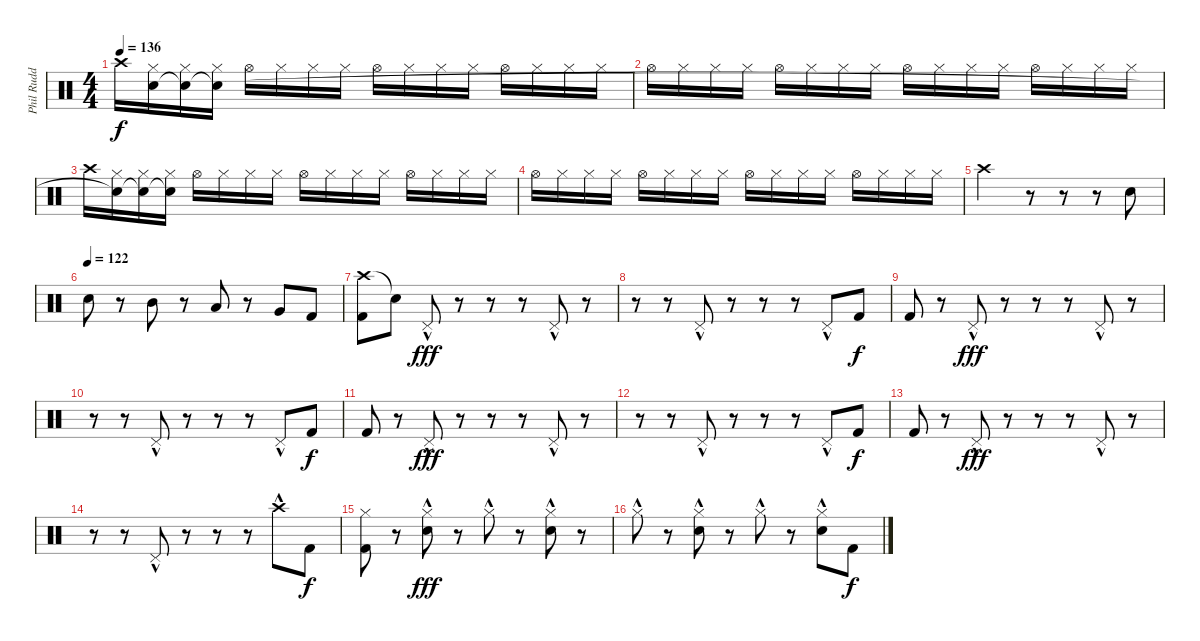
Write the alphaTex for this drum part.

\track ("Phil Rudd" "Phil Rudd") {instrument percussion}
\staff {score}
\articulation defaults
\ts (4 4)
\tempo 136
\clef neutral
\ks c "Crash high (hit)".16{dy f}
("Hi-Hat (closed)" "Snare (hit)"{t}).16 ("Hi-Hat (closed)" "Snare (hit)"{t}).16 ("Hi-Hat (closed)" "Snare (hit)"{t}).16 "Hi-Hat (open)".16 "Hi-Hat (closed)".16 "Hi-Hat (closed)".16 "Hi-Hat (closed)".16 "Hi-Hat (open)".16 "Hi-Hat (closed)".16 "Hi-Hat (closed)".16 "Hi-Hat (closed)".16 "Hi-Hat (open)".16 "Hi-Hat (closed)".16 "Hi-Hat (closed)".16 "Hi-Hat (closed)".16 |
"Hi-Hat (open)".16 "Hi-Hat (closed)".16 "Hi-Hat (closed)".16 "Hi-Hat (closed)".16 "Hi-Hat (open)".16 "Hi-Hat (closed)".16 "Hi-Hat (closed)".16 "Hi-Hat (closed)".16 "Hi-Hat (open)".16 "Hi-Hat (closed)".16 "Hi-Hat (closed)".16 "Hi-Hat (closed)".16 "Hi-Hat (open)".16 "Hi-Hat (closed)".16 "Hi-Hat (closed)".16 "Hi-Hat (closed)".16 |
"Crash high (hit)".16 ("Hi-Hat (closed)" "Snare (hit)"{t}).16 ("Hi-Hat (closed)" "Snare (hit)"{t}).16 ("Hi-Hat (closed)" "Snare (hit)"{t}).16 "Hi-Hat (open)".16 "Hi-Hat (closed)".16 "Hi-Hat (closed)".16 "Hi-Hat (closed)".16 "Hi-Hat (open)".16 "Hi-Hat (closed)".16 "Hi-Hat (closed)".16 "Hi-Hat (closed)".16 "Hi-Hat (open)".16 "Hi-Hat (closed)".16 "Hi-Hat (closed)".16 "Hi-Hat (closed)".16 |
"Hi-Hat (open)".16 "Hi-Hat (closed)".16 "Hi-Hat (closed)".16 "Hi-Hat (closed)".16 "Hi-Hat (open)".16 "Hi-Hat (closed)".16 "Hi-Hat (closed)".16 "Hi-Hat (closed)".16 "Hi-Hat (open)".16 "Hi-Hat (closed)".16 "Hi-Hat (closed)".16 "Hi-Hat (closed)".16 "Hi-Hat (open)".16 "Hi-Hat (closed)".16 "Hi-Hat (closed)".16 "Hi-Hat (closed)".16 |
"Crash high (hit)".2 r.8 r.8 r.8 "Snare (hit) 2".8 |
\tempo (122)
"Snare (hit) 2".8 r.8 "Mid Tom (hit)".8 r.8 "Low Tom (hit)".8 r.8 "Very Low Tom (hit)".8 "Kick (hit) 2".8 |
("Crash high (hit)" "Kick (hit) 2").8 "Snare (hit)"{t}.8 "Pedal Hi-Hat (hit)"{hac}.8{dy fff} r.8 r.8 r.8 "Pedal Hi-Hat (hit)"{hac}.8 r.8 |
r.8 r.8 "Pedal Hi-Hat (hit)"{hac}.8 r.8 r.8 r.8 "Pedal Hi-Hat (hit)"{hac}.8 "Kick (hit) 2".8{dy f} |
"Kick (hit) 2".8 r.8 "Pedal Hi-Hat (hit)"{hac}.8{dy fff} r.8 r.8 r.8 "Pedal Hi-Hat (hit)"{hac}.8 r.8 |
r.8 r.8 "Pedal Hi-Hat (hit)"{hac}.8 r.8 r.8 r.8 "Pedal Hi-Hat (hit)"{hac}.8 "Kick (hit) 2".8{dy f} |
"Kick (hit) 2".8 r.8 "Pedal Hi-Hat (hit)"{hac}.8{dy fff} r.8 r.8 r.8 "Pedal Hi-Hat (hit)"{hac}.8 r.8 |
r.8 r.8 "Pedal Hi-Hat (hit)"{hac}.8 r.8 r.8 r.8 "Pedal Hi-Hat (hit)"{hac}.8 "Kick (hit) 2".8{dy f} |
"Kick (hit) 2".8 r.8 "Pedal Hi-Hat (hit)"{hac}.8{dy fff} r.8 r.8 r.8 "Pedal Hi-Hat (hit)"{hac}.8 r.8 |
r.8 r.8 "Pedal Hi-Hat (hit)"{hac}.8 r.8 r.8 r.8 "Crash high (hit)"{hac}.8 "Kick (hit) 2".8{dy f} |
("Hi-Hat (closed)" "Kick (hit) 2").8 r.8 ("Hi-Hat (closed)"{hac} "Snare (hit) 2").8{dy fff} r.8 "Hi-Hat (closed)"{hac}.8 r.8 ("Hi-Hat (closed)"{hac} "Snare (hit) 2").8 r.8 |
"Hi-Hat (closed)"{hac}.8 r.8 ("Hi-Hat (closed)"{hac} "Snare (hit) 2").8 r.8 "Hi-Hat (closed)"{hac}.8 r.8 ("Hi-Hat (closed)"{hac} "Snare (hit) 2").8 "Kick (hit) 2".8{dy f}
